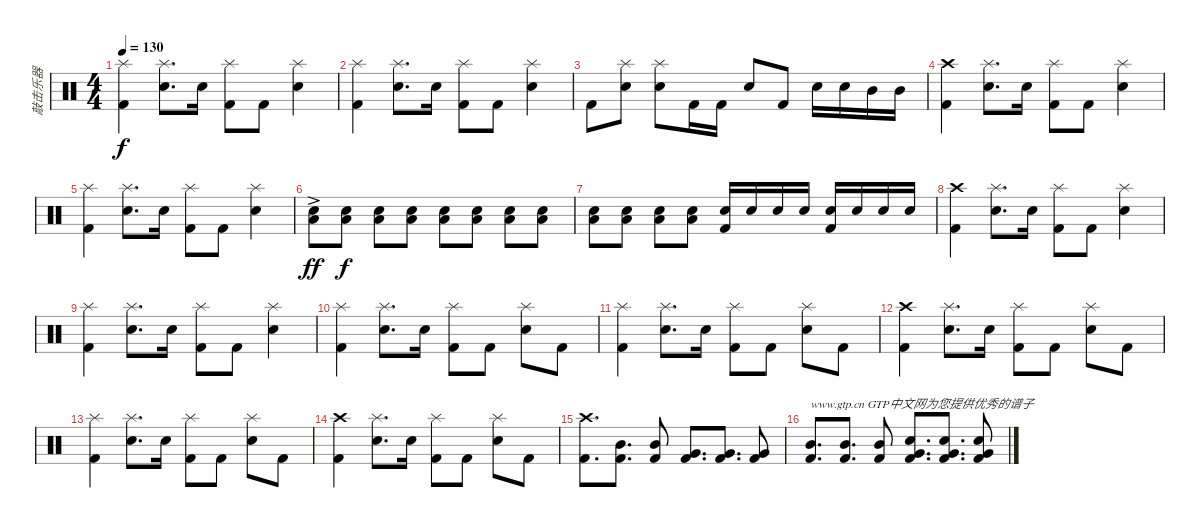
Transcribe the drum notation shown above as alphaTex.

\track ("敲击乐器" "敲击乐器") {instrument percussion}
\staff {score}
\articulation defaults
\ts (4 4)
\tempo 130
\clef neutral
\ks c
("Splash (hit)" "Kick (hit) 2").4{dy f} ("Splash (hit)" "Snare (hit) 2").8{d} "Snare (hit) 2".16 ("Splash (hit)" "Kick (hit) 2").8 "Kick (hit) 2".8 ("Splash (hit)" "Snare (hit) 2").4 |
("Splash (hit)" "Kick (hit) 2").4 ("Splash (hit)" "Snare (hit) 2").8{d} "Snare (hit) 2".16 ("Splash (hit)" "Kick (hit) 2").8 "Kick (hit) 2".8 ("Splash (hit)" "Snare (hit) 2").4 |
"Kick (hit) 2".8 ("Splash (hit)" "Snare (hit) 2").8 ("Splash (hit)" "Snare (hit) 2").8 "Kick (hit) 2".16 "Kick (hit) 2".16 "Snare (hit) 2".8 "Kick (hit) 2".8 "Snare (hit) 2".16 "Snare (hit) 2".16 "Mid Tom (hit)".16 "Mid Tom (hit)".16 |
("Crash high (hit)" "Kick (hit) 2").4 ("Splash (hit)" "Snare (hit) 2").8{d} "Snare (hit) 2".16 ("Splash (hit)" "Kick (hit) 2").8 "Kick (hit) 2".8 ("Splash (hit)" "Snare (hit) 2").4 |
("Splash (hit)" "Kick (hit) 2").4 ("Splash (hit)" "Snare (hit) 2").8{d} "Snare (hit) 2".16 ("Splash (hit)" "Kick (hit) 2").8 "Kick (hit) 2".8 ("Splash (hit)" "Snare (hit) 2").4 |
("Snare (hit) 2"{ac} "Low Floor Tom (hit)").8{dy ff} ("Snare (hit) 2" "Low Floor Tom (hit)").8{dy f} ("Snare (hit) 2" "Low Floor Tom (hit)").8 ("Snare (hit) 2" "Low Floor Tom (hit)").8 ("Snare (hit) 2" "Low Floor Tom (hit)").8 ("Snare (hit) 2" "Low Floor Tom (hit)").8 ("Snare (hit) 2" "Low Floor Tom (hit)").8 ("Snare (hit) 2" "Low Floor Tom (hit)").8 |
("Snare (hit) 2" "Low Floor Tom (hit)").8 ("Snare (hit) 2" "Low Floor Tom (hit)").8 ("Snare (hit) 2" "Low Floor Tom (hit)").8 ("Snare (hit) 2" "Low Floor Tom (hit)").8 ("Snare (hit) 2" "Kick (hit) 2").16 "Snare (hit) 2".16 "Snare (hit) 2".16 "Snare (hit) 2".16 ("Snare (hit) 2" "Kick (hit) 2").16 "Snare (hit) 2".16 "Snare (hit) 2".16 "Snare (hit) 2".16 |
("Crash high (hit)" "Kick (hit) 2").4 ("Splash (hit)" "Snare (hit) 2").8{d} "Snare (hit) 2".16 ("Splash (hit)" "Kick (hit) 2").8 "Kick (hit) 2".8 ("Splash (hit)" "Snare (hit) 2").4 |
("Splash (hit)" "Kick (hit) 2").4 ("Splash (hit)" "Snare (hit) 2").8{d} "Snare (hit) 2".16 ("Splash (hit)" "Kick (hit) 2").8 "Kick (hit) 2".8 ("Splash (hit)" "Snare (hit) 2").4 |
("Splash (hit)" "Kick (hit) 2").4 ("Splash (hit)" "Snare (hit) 2").8{d} "Snare (hit) 2".16 ("Splash (hit)" "Kick (hit) 2").8 "Kick (hit) 2".8 ("Splash (hit)" "Snare (hit) 2").8 "Kick (hit) 2".8 |
("Splash (hit)" "Kick (hit) 2").4 ("Splash (hit)" "Snare (hit) 2").8{d} "Snare (hit) 2".16 ("Splash (hit)" "Kick (hit) 2").8 "Kick (hit) 2".8 ("Splash (hit)" "Snare (hit) 2").8 "Kick (hit) 2".8 |
("Crash high (hit)" "Kick (hit) 2").4 ("Splash (hit)" "Snare (hit) 2").8{d} "Snare (hit) 2".16 ("Splash (hit)" "Kick (hit) 2").8 "Kick (hit) 2".8 ("Splash (hit)" "Snare (hit) 2").8 "Kick (hit) 2".8 |
("Splash (hit)" "Kick (hit) 2").4 ("Splash (hit)" "Snare (hit) 2").8{d} "Snare (hit) 2".16 ("Splash (hit)" "Kick (hit) 2").8 "Kick (hit) 2".8 ("Splash (hit)" "Snare (hit) 2").8 "Kick (hit) 2".8 |
("Crash high (hit)" "Kick (hit) 2").4 ("Splash (hit)" "Snare (hit) 2").8{d} "Snare (hit) 2".16 ("Splash (hit)" "Kick (hit) 2").8 "Kick (hit) 2".8 ("Splash (hit)" "Snare (hit) 2").8 "Kick (hit) 2".8 |
("Crash high (hit)" "Kick (hit) 2").8{d} ("Mid Tom (hit)" "Kick (hit) 2").8{d} ("Mid Tom (hit)" "Kick (hit) 2").8 ("Very Low Tom (hit)" "Kick (hit) 2").8{d} ("Very Low Tom (hit)" "Kick (hit) 2").8{d} ("Very Low Tom (hit)" "Kick (hit) 2").8 |
("Mid Tom (hit)" "Kick (hit) 2").8{d txt "www.gtp.cn GTP中文网为您提供优秀的谱子"} ("Mid Tom (hit)" "Kick (hit) 2").8{d} ("Mid Tom (hit)" "Kick (hit) 2").8 ("Very Low Tom (hit)" "Snare (hit) 2" "Kick (hit) 2").8{d} ("Very Low Tom (hit)" "Snare (hit) 2" "Kick (hit) 2").8{d} ("Very Low Tom (hit)" "Snare (hit) 2" "Kick (hit) 2").8
